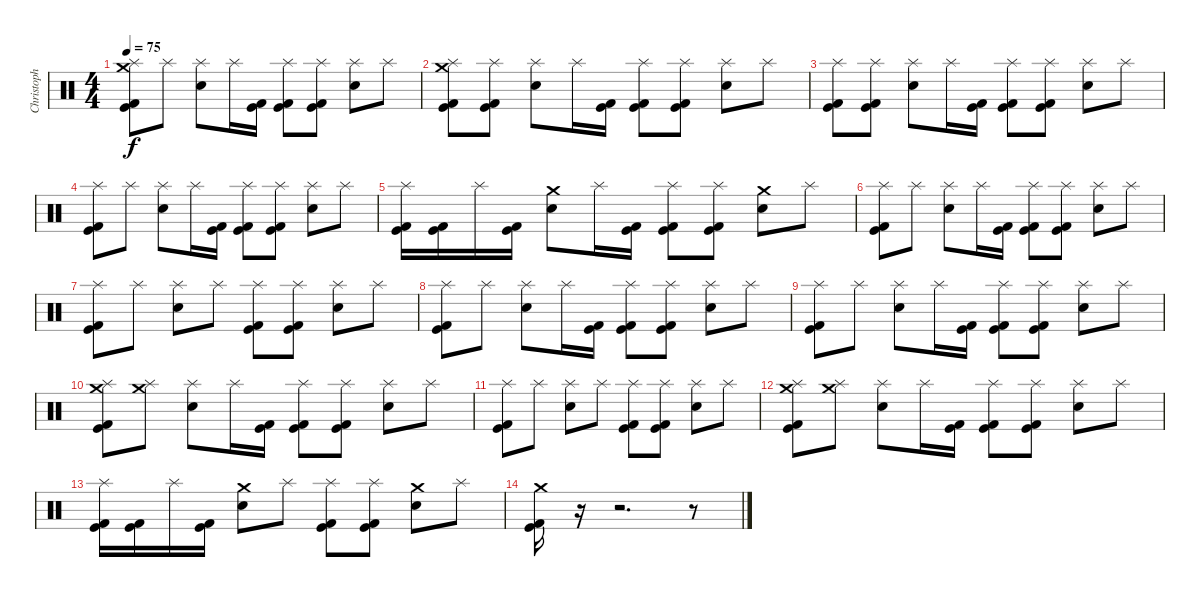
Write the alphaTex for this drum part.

\track ("Christoph" "Christoph") {instrument percussion}
\staff {score}
\articulation defaults
\ts (4 4)
\tempo 75
\clef neutral
\ks c
("Splash (hit)" "Kick (hit)" "Kick (hit) 2" "Crash medium (hit)").8{dy f} "Splash (hit)".8 ("Splash (hit)" "Snare (hit) 2").8 "Splash (hit)".16 ("Kick (hit)" "Kick (hit) 2").16 ("Kick (hit) 2" "Kick (hit)" "Splash (hit)").8 ("Kick (hit) 2" "Kick (hit)" "Splash (hit)").8 ("Snare (hit) 2" "Splash (hit)").8 "Splash (hit)".8 |
("Splash (hit)" "Kick (hit)" "Kick (hit) 2" "Crash medium (hit)").8 ("Splash (hit)" "Kick (hit)" "Kick (hit) 2").8 ("Splash (hit)" "Snare (hit) 2").8 "Splash (hit)".16 ("Kick (hit)" "Kick (hit) 2").16 ("Kick (hit) 2" "Kick (hit)" "Splash (hit)").8 ("Kick (hit) 2" "Kick (hit)" "Splash (hit)").8 ("Snare (hit) 2" "Splash (hit)").8 "Splash (hit)".8 |
("Splash (hit)" "Kick (hit)" "Kick (hit) 2").8 ("Splash (hit)" "Kick (hit)" "Kick (hit) 2").8 ("Splash (hit)" "Snare (hit) 2").8 "Splash (hit)".16 ("Kick (hit)" "Kick (hit) 2").16 ("Kick (hit) 2" "Kick (hit)" "Splash (hit)").8 ("Kick (hit) 2" "Kick (hit)" "Splash (hit)").8 ("Snare (hit) 2" "Splash (hit)").8 "Splash (hit)".8 |
("Splash (hit)" "Kick (hit)" "Kick (hit) 2").8 "Splash (hit)".8 ("Splash (hit)" "Snare (hit) 2").8 "Splash (hit)".16 ("Kick (hit)" "Kick (hit) 2").16 ("Kick (hit) 2" "Kick (hit)" "Splash (hit)").8 ("Kick (hit) 2" "Kick (hit)" "Splash (hit)").8 ("Snare (hit) 2" "Splash (hit)").8 "Splash (hit)".8 |
("Splash (hit)" "Kick (hit)" "Kick (hit) 2").16 ("Kick (hit) 2" "Kick (hit)").16 "Splash (hit)".16 ("Kick (hit)" "Kick (hit) 2").16 ("Snare (hit) 2" "Crash medium (hit)").8 "Splash (hit)".16 ("Kick (hit)" "Kick (hit) 2").16 ("Kick (hit) 2" "Kick (hit)" "Splash (hit)").8 ("Kick (hit)" "Kick (hit) 2" "Splash (hit)").8 ("Snare (hit) 2" "Crash medium (hit)").8 "Splash (hit)".8 |
("Splash (hit)" "Kick (hit)" "Kick (hit) 2").8 "Splash (hit)".8 ("Splash (hit)" "Snare (hit) 2").8 "Splash (hit)".16 ("Kick (hit)" "Kick (hit) 2").16 ("Kick (hit) 2" "Kick (hit)" "Splash (hit)").8 ("Kick (hit) 2" "Kick (hit)" "Splash (hit)").8 ("Snare (hit) 2" "Splash (hit)").8 "Splash (hit)".8 |
("Splash (hit)" "Kick (hit)" "Kick (hit) 2").8 "Splash (hit)".8 ("Splash (hit)" "Snare (hit) 2").8 "Splash (hit)".8 ("Splash (hit)" "Kick (hit)" "Kick (hit) 2").8 ("Splash (hit)" "Kick (hit) 2" "Kick (hit)").8 ("Splash (hit)" "Snare (hit) 2").8 "Splash (hit)".8 |
("Splash (hit)" "Kick (hit)" "Kick (hit) 2").8 "Splash (hit)".8 ("Splash (hit)" "Snare (hit) 2").8 "Splash (hit)".16 ("Kick (hit)" "Kick (hit) 2").16 ("Kick (hit) 2" "Kick (hit)" "Splash (hit)").8 ("Kick (hit) 2" "Kick (hit)" "Splash (hit)").8 ("Snare (hit) 2" "Splash (hit)").8 "Splash (hit)".8 |
("Splash (hit)" "Kick (hit)" "Kick (hit) 2").8 "Splash (hit)".8 ("Splash (hit)" "Snare (hit) 2").8 "Splash (hit)".16 ("Kick (hit)" "Kick (hit) 2").16 ("Kick (hit) 2" "Kick (hit)" "Splash (hit)").8 ("Kick (hit) 2" "Kick (hit)" "Splash (hit)").8 ("Snare (hit) 2" "Splash (hit)").8 "Splash (hit)".8 |
("Splash (hit)" "Kick (hit)" "Kick (hit) 2" "Crash medium (hit)").8 ("Splash (hit)" "Crash medium (hit)").8 ("Splash (hit)" "Snare (hit) 2").8 "Splash (hit)".16 ("Kick (hit)" "Kick (hit) 2").16 ("Kick (hit) 2" "Kick (hit)" "Splash (hit)").8 ("Kick (hit) 2" "Kick (hit)" "Splash (hit)").8 ("Snare (hit) 2" "Splash (hit)").8 "Splash (hit)".8 |
("Splash (hit)" "Kick (hit)" "Kick (hit) 2").8 "Splash (hit)".8 ("Splash (hit)" "Snare (hit) 2").8 "Splash (hit)".8 ("Splash (hit)" "Kick (hit)" "Kick (hit) 2").8 ("Splash (hit)" "Kick (hit)" "Kick (hit) 2").8 ("Splash (hit)" "Snare (hit) 2").8 "Splash (hit)".8 |
("Splash (hit)" "Kick (hit)" "Kick (hit) 2" "Crash medium (hit)").8 ("Splash (hit)" "Crash medium (hit)").8 ("Splash (hit)" "Snare (hit) 2").8 "Splash (hit)".16 ("Kick (hit)" "Kick (hit) 2").16 ("Kick (hit) 2" "Kick (hit)" "Splash (hit)").8 ("Kick (hit) 2" "Kick (hit)" "Splash (hit)").8 ("Snare (hit) 2" "Splash (hit)").8 "Splash (hit)".8 |
("Splash (hit)" "Kick (hit)" "Kick (hit) 2").16 ("Kick (hit) 2" "Kick (hit)").16 "Splash (hit)".16 ("Kick (hit)" "Kick (hit) 2").16 ("Snare (hit) 2" "Crash medium (hit)").8 "Splash (hit)".8 ("Kick (hit) 2" "Kick (hit)" "Splash (hit)").8 ("Kick (hit)" "Kick (hit) 2" "Splash (hit)").8 ("Snare (hit) 2" "Crash medium (hit)").8 "Splash (hit)".8 |
("Kick (hit)" "Kick (hit) 2" "Crash medium (hit)").16 r.16 r.2{d} r.8
